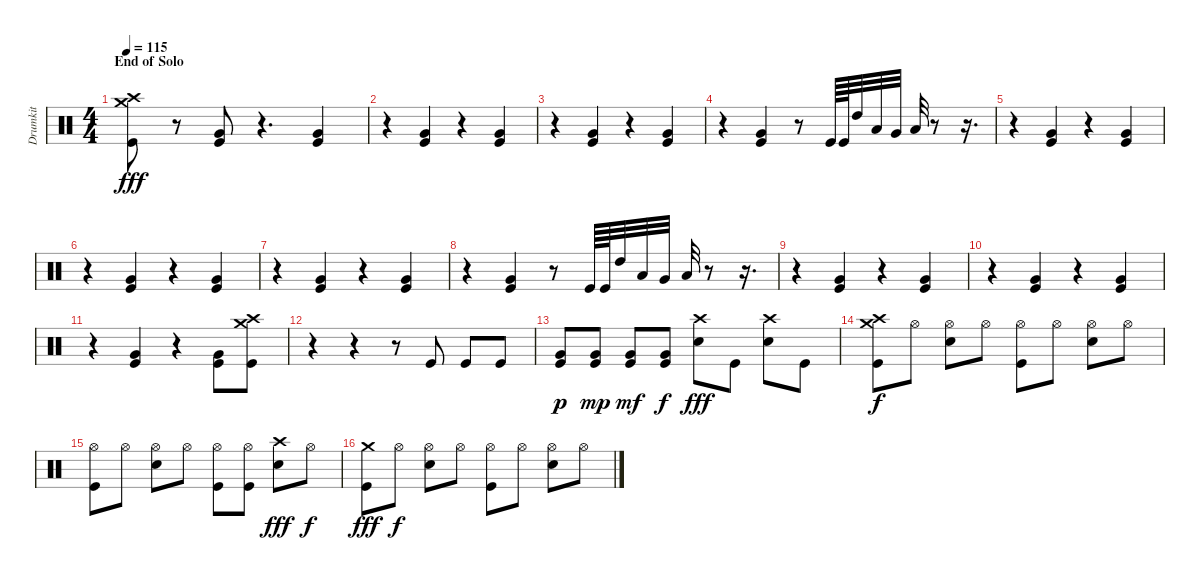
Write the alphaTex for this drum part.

\track ("Drumkit" "Drumkit") {instrument percussion}
\staff {score}
\articulation defaults
\ts (4 4)
\section ("" "End of Solo")
\tempo 115
\clef neutral
\ks c
("Crash medium (hit)" "Crash high (hit)" "Kick (hit)").8{dy fff} r.8 ("Very Low Tom (hit)" "Kick (hit)").8 r.4{d} ("Very Low Tom (hit)" "Kick (hit)").4 |
r.4 ("Very Low Tom (hit)" "Kick (hit)").4 r.4 ("Very Low Tom (hit)" "Kick (hit)").4 |
r.4 ("Very Low Tom (hit)" "Kick (hit)").4 r.4 ("Very Low Tom (hit)" "Kick (hit)").4 |
r.4 ("Very Low Tom (hit)" "Kick (hit)").4 r.8 "Kick (hit)".64 "Kick (hit)".64 "High Tom (hit)".32 "Low Tom (hit)".32 "Very Low Tom (hit)".32 "Low Floor Tom (hit)".32 r.8 r.16{d} |
r.4 ("Very Low Tom (hit)" "Kick (hit)").4 r.4 ("Very Low Tom (hit)" "Kick (hit)").4 |
r.4 ("Very Low Tom (hit)" "Kick (hit)").4 r.4 ("Very Low Tom (hit)" "Kick (hit)").4 |
r.4 ("Very Low Tom (hit)" "Kick (hit)").4 r.4 ("Very Low Tom (hit)" "Kick (hit)").4 |
r.4 ("Very Low Tom (hit)" "Kick (hit)").4 r.8 "Kick (hit)".64 "Kick (hit)".64 "High Tom (hit)".32 "Low Tom (hit)".32 "Very Low Tom (hit)".32 "Low Floor Tom (hit)".32 r.8 r.16{d} |
r.4 ("Very Low Tom (hit)" "Kick (hit)").4 r.4 ("Very Low Tom (hit)" "Kick (hit)").4 |
r.4 ("Very Low Tom (hit)" "Kick (hit)").4 r.4 ("Very Low Tom (hit)" "Kick (hit)").4 |
r.4 ("Very Low Tom (hit)" "Kick (hit)").4 r.4 ("Very Low Tom (hit)" "Kick (hit)").8 ("Crash high (hit)" "Crash medium (hit)" "Kick (hit)").8 |
r.4 r.4 r.8 "Kick (hit)".8 "Kick (hit)".8 "Kick (hit)".8 |
("Very Low Tom (hit)" "Kick (hit)").8{dy p} ("Very Low Tom (hit)" "Kick (hit)").8{dy mp} ("Very Low Tom (hit)" "Kick (hit)").8{dy mf} ("Very Low Tom (hit)" "Kick (hit)").8{dy f} ("Crash high (hit)" "Snare (hit) 2").8{dy fff} "Kick (hit)".8 ("Crash high (hit)" "Snare (hit) 2").8 "Kick (hit)".8 |
("Crash high (hit)" "Crash medium (hit)" "Kick (hit)").8{dy f} "Hi-Hat (open)".8 ("Hi-Hat (open)" "Snare (hit) 2").8 "Hi-Hat (open)".8 ("Hi-Hat (open)" "Kick (hit)").8 "Hi-Hat (open)".8 ("Hi-Hat (open)" "Snare (hit) 2").8 "Hi-Hat (open)".8 |
("Hi-Hat (open)" "Kick (hit)").8 "Hi-Hat (open)".8 ("Hi-Hat (open)" "Snare (hit) 2").8 "Hi-Hat (open)".8 ("Hi-Hat (open)" "Kick (hit)").8 ("Hi-Hat (open)" "Kick (hit)").8 ("Crash high (hit)" "Snare (hit) 2").8{dy fff} "Hi-Hat (open)".8{dy f} |
("Crash medium (hit)" "Kick (hit)").8{dy fff} "Hi-Hat (open)".8{dy f} ("Hi-Hat (open)" "Snare (hit) 2").8 "Hi-Hat (open)".8 ("Hi-Hat (open)" "Kick (hit)").8 "Hi-Hat (open)".8 ("Hi-Hat (open)" "Snare (hit) 2").8 "Hi-Hat (open)".8
